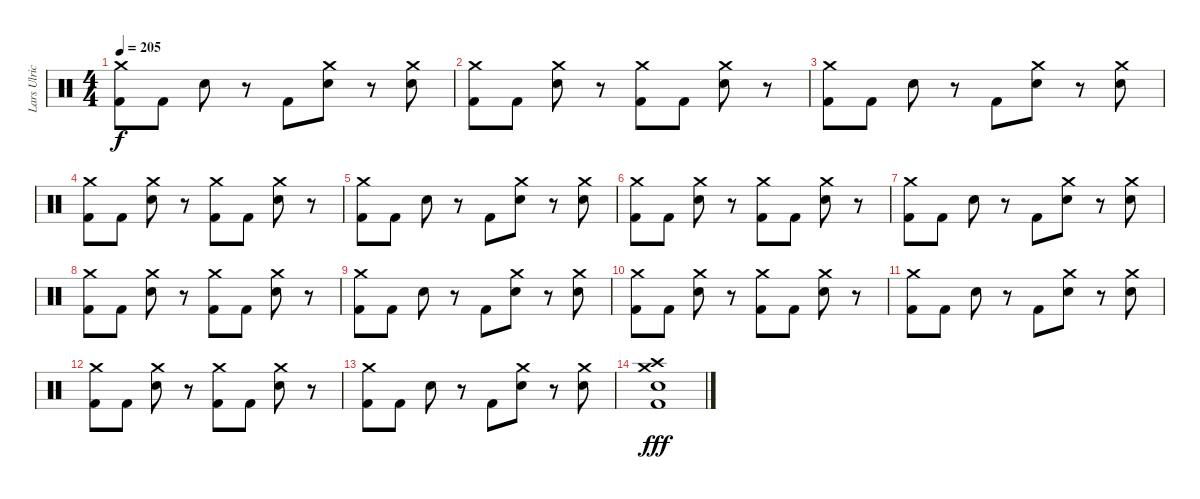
\track ("Lars Ulrich" "Lars Ulric") {instrument percussion}
\staff {score}
\articulation defaults
\ts (4 4)
\tempo 205
\clef neutral
\ks c
("Crash medium (hit)" "Kick (hit) 2").8{dy f} "Kick (hit) 2".8 "Electric Snare (hit)".8 r.8 "Kick (hit) 2".8 ("Crash medium (hit)" "Electric Snare (hit)").8 r.8 ("Crash medium (hit)" "Electric Snare (hit)").8 |
("Crash medium (hit)" "Kick (hit) 2").8 "Kick (hit) 2".8 ("Crash medium (hit)" "Electric Snare (hit)").8 r.8 ("Crash medium (hit)" "Kick (hit) 2").8 "Kick (hit) 2".8 ("Crash medium (hit)" "Electric Snare (hit)").8 r.8 |
("Crash medium (hit)" "Kick (hit) 2").8 "Kick (hit) 2".8 "Electric Snare (hit)".8 r.8 "Kick (hit) 2".8 ("Crash medium (hit)" "Electric Snare (hit)").8 r.8 ("Crash medium (hit)" "Electric Snare (hit)").8 |
("Crash medium (hit)" "Kick (hit) 2").8 "Kick (hit) 2".8 ("Crash medium (hit)" "Electric Snare (hit)").8 r.8 ("Crash medium (hit)" "Kick (hit) 2").8 "Kick (hit) 2".8 ("Crash medium (hit)" "Electric Snare (hit)").8 r.8 |
("Crash medium (hit)" "Kick (hit) 2").8 "Kick (hit) 2".8 "Electric Snare (hit)".8 r.8 "Kick (hit) 2".8 ("Crash medium (hit)" "Electric Snare (hit)").8 r.8 ("Crash medium (hit)" "Electric Snare (hit)").8 |
("Crash medium (hit)" "Kick (hit) 2").8 "Kick (hit) 2".8 ("Crash medium (hit)" "Electric Snare (hit)").8 r.8 ("Crash medium (hit)" "Kick (hit) 2").8 "Kick (hit) 2".8 ("Crash medium (hit)" "Electric Snare (hit)").8 r.8 |
("Crash medium (hit)" "Kick (hit) 2").8 "Kick (hit) 2".8 "Electric Snare (hit)".8 r.8 "Kick (hit) 2".8 ("Crash medium (hit)" "Electric Snare (hit)").8 r.8 ("Crash medium (hit)" "Electric Snare (hit)").8 |
("Crash medium (hit)" "Kick (hit) 2").8 "Kick (hit) 2".8 ("Crash medium (hit)" "Electric Snare (hit)").8 r.8 ("Crash medium (hit)" "Kick (hit) 2").8 "Kick (hit) 2".8 ("Crash medium (hit)" "Electric Snare (hit)").8 r.8 |
("Crash medium (hit)" "Kick (hit) 2").8 "Kick (hit) 2".8 "Electric Snare (hit)".8 r.8 "Kick (hit) 2".8 ("Crash medium (hit)" "Electric Snare (hit)").8 r.8 ("Crash medium (hit)" "Electric Snare (hit)").8 |
("Crash medium (hit)" "Kick (hit) 2").8 "Kick (hit) 2".8 ("Crash medium (hit)" "Electric Snare (hit)").8 r.8 ("Crash medium (hit)" "Kick (hit) 2").8 "Kick (hit) 2".8 ("Crash medium (hit)" "Electric Snare (hit)").8 r.8 |
("Crash medium (hit)" "Kick (hit) 2").8 "Kick (hit) 2".8 "Electric Snare (hit)".8 r.8 "Kick (hit) 2".8 ("Crash medium (hit)" "Electric Snare (hit)").8 r.8 ("Crash medium (hit)" "Electric Snare (hit)").8 |
("Crash medium (hit)" "Kick (hit) 2").8 "Kick (hit) 2".8 ("Crash medium (hit)" "Electric Snare (hit)").8 r.8 ("Crash medium (hit)" "Kick (hit) 2").8 "Kick (hit) 2".8 ("Crash medium (hit)" "Electric Snare (hit)").8 r.8 |
("Crash medium (hit)" "Kick (hit) 2").8 "Kick (hit) 2".8 "Electric Snare (hit)".8 r.8 "Kick (hit) 2".8 ("Crash medium (hit)" "Electric Snare (hit)").8 r.8 ("Crash medium (hit)" "Electric Snare (hit)").8 |
("Crash high (hit)" "Kick (hit) 2" "Electric Snare (hit)" "Crash medium (hit)").1{dy fff}
